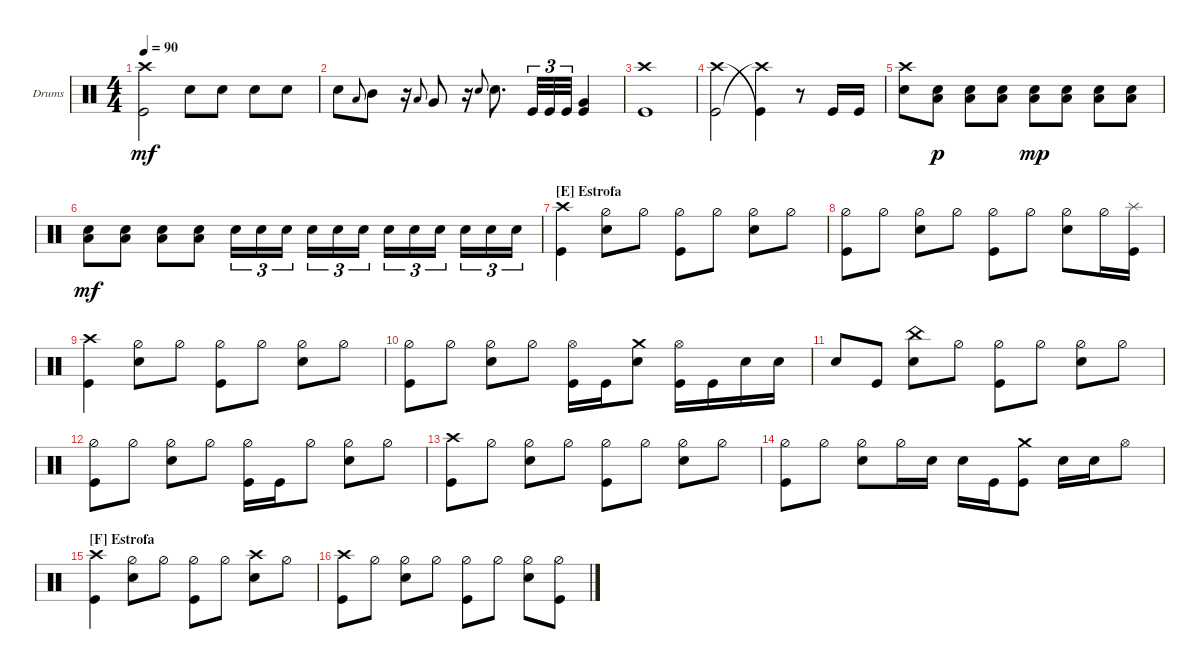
\bracketExtendMode groupsimilarinstruments
\firstSystemTrackNameOrientation horizontal
\otherSystemsTrackNameOrientation horizontal
\track ("Arin Ilejay" "Drums") {instrument percussion}
\staff {score}
\articulation defaults
\ts (4 4)
\tempo 90
\clef neutral
\ks c
("Kick (hit)" "Crash high (hit)").2{dy mf} "Snare (hit) 2".8 "Snare (hit) 2".8 "Snare (hit) 2".8 "Snare (hit) 2".8 |
"Snare (hit) 2".8 "Low Tom (hit)".8{gr onbeat} "Mid Tom (hit)".8 r.16 "Low Tom (hit)".8{gr onbeat} "Very Low Tom (hit)".8 r.16 "Snare (hit) 2".8{gr onbeat} "Snare (hit) 2".8{d} "Kick (hit)".32{tu (3 2)} "Kick (hit)".32{tu (3 2)} "Kick (hit)".32{tu (3 2)} ("Kick (hit)" "Very Low Tom (hit)").4 |
("Kick (hit)" "Crash high (hit)").1 |
("Kick (hit)" "Crash high (hit)").2 ("Crash high (hit)"{t} "Kick (hit)"{t}).4 r.8 "Kick (hit)".16 "Kick (hit)".16 |
("Crash high (hit)" "Snare (hit) 2").8 ("Low Tom (hit)" "Snare (hit) 2").8{dy p} ("Low Tom (hit)" "Snare (hit) 2").8 ("Low Tom (hit)" "Snare (hit) 2").8 ("Low Tom (hit)" "Snare (hit) 2").8{dy mp} ("Low Tom (hit)" "Snare (hit) 2").8 ("Low Tom (hit)" "Snare (hit) 2").8 ("Low Tom (hit)" "Snare (hit) 2").8 |
("Low Tom (hit)" "Snare (hit) 2").8{dy mf} ("Low Tom (hit)" "Snare (hit) 2").8 ("Low Tom (hit)" "Snare (hit) 2").8 ("Low Tom (hit)" "Snare (hit) 2").8 "Snare (hit) 2".16{tu (3 2)} "Snare (hit) 2".16{tu (3 2)} "Snare (hit) 2".16{tu (3 2)} "Snare (hit) 2".16{tu (3 2)} "Snare (hit) 2".16{tu (3 2)} "Snare (hit) 2".16{tu (3 2)} "Snare (hit) 2".16{tu (3 2)} "Snare (hit) 2".16{tu (3 2)} "Snare (hit) 2".16{tu (3 2)} "Snare (hit) 2".16{tu (3 2)} "Snare (hit) 2".16{tu (3 2)} "Snare (hit) 2".16{tu (3 2)} |
\section ("E" "Estrofa")
("Crash high (hit)" "Kick (hit)").4 ("Snare (hit) 2" "Hi-Hat (half)").8 "Hi-Hat (half)".8 ("Hi-Hat (half)" "Kick (hit)").8 "Hi-Hat (half)".8 ("Snare (hit) 2" "Hi-Hat (half)").8 "Hi-Hat (half)".8 |
("Hi-Hat (half)" "Kick (hit)").8 "Hi-Hat (half)".8 ("Snare (hit) 2" "Hi-Hat (half)").8 "Hi-Hat (half)".8 ("Hi-Hat (half)" "Kick (hit)").8 "Hi-Hat (half)".8 ("Snare (hit) 2" "Hi-Hat (half)").8 "Hi-Hat (half)".16 ("Kick (hit)" "Splash (hit)").16 |
("Crash high (hit)" "Kick (hit)").4 ("Snare (hit) 2" "Hi-Hat (half)").8 "Hi-Hat (half)".8 ("Hi-Hat (half)" "Kick (hit)").8 "Hi-Hat (half)".8 ("Snare (hit) 2" "Hi-Hat (half)").8 "Hi-Hat (half)".8 |
("Hi-Hat (half)" "Kick (hit)").8 "Hi-Hat (half)".8 ("Snare (hit) 2" "Hi-Hat (half)").8 "Hi-Hat (half)".8 ("Kick (hit)" "Hi-Hat (open)").16 "Kick (hit)".16 ("Snare (hit) 2" "Crash medium (hit)").8 ("Kick (hit)" "Hi-Hat (open)").16 "Kick (hit)".16 "Snare (hit) 2".16 "Snare (hit) 2".16 |
"Snare (hit) 2".8 "Kick (hit)".8 ("Snare (hit) 2" "China (hit)").8 "Hi-Hat (half)".8 ("Hi-Hat (half)" "Kick (hit)").8 "Hi-Hat (half)".8 ("Snare (hit) 2" "Hi-Hat (half)").8 "Hi-Hat (half)".8 |
("Kick (hit)" "Hi-Hat (half)").8 "Hi-Hat (half)".8 ("Snare (hit) 2" "Hi-Hat (half)").8 "Hi-Hat (half)".8 ("Hi-Hat (half)" "Kick (hit)").16 "Kick (hit)".16 "Hi-Hat (half)".8 ("Snare (hit) 2" "Hi-Hat (half)").8 "Hi-Hat (half)".8 |
("Crash high (hit)" "Kick (hit)").8 "Hi-Hat (half)".8 ("Snare (hit) 2" "Hi-Hat (half)").8 "Hi-Hat (half)".8 ("Hi-Hat (half)" "Kick (hit)").8 "Hi-Hat (half)".8 ("Snare (hit) 2" "Hi-Hat (half)").8 "Hi-Hat (half)".8 |
("Hi-Hat (half)" "Kick (hit)").8 "Hi-Hat (half)".8 ("Snare (hit) 2" "Hi-Hat (half)").8 "Hi-Hat (half)".16 "Snare (hit) 2".16 "Snare (hit) 2".16 "Kick (hit)".16 ("Kick (hit)" "Crash medium (hit)").8 "Snare (hit) 2".16 "Snare (hit) 2".16 "Hi-Hat (open)".8 |
\section ("F" "Estrofa")
("Crash high (hit)" "Kick (hit)").4 ("Hi-Hat (half)" "Snare (hit) 2").8 "Hi-Hat (half)".8 ("Hi-Hat (half)" "Kick (hit)").8 "Hi-Hat (half)".8 ("Snare (hit) 2" "Crash high (hit)").8 "Hi-Hat (half)".8 |
("Kick (hit)" "Crash high (hit)").8 "Hi-Hat (half)".8 ("Hi-Hat (half)" "Snare (hit) 2").8 "Hi-Hat (half)".8 ("Hi-Hat (half)" "Kick (hit)").8 "Hi-Hat (half)".8 ("Hi-Hat (half)" "Snare (hit) 2").8 ("Hi-Hat (half)" "Kick (hit)").8
